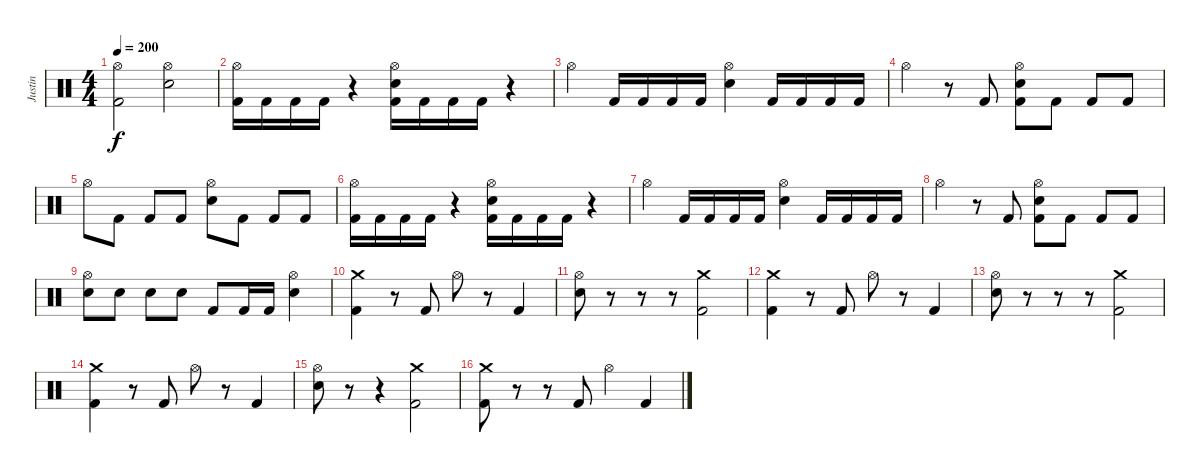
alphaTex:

\track ("Justin" "Justin") {instrument percussion}
\staff {score}
\articulation defaults
\ts (4 4)
\tempo 200
\clef neutral
\ks c
("Hi-Hat (open)" "Kick (hit) 2").2{dy f} ("Hi-Hat (open)" "Electric Snare (hit)").2 |
("Hi-Hat (open)" "Kick (hit) 2").16 "Kick (hit) 2".16 "Kick (hit) 2".16 "Kick (hit) 2".16 r.4 ("Hi-Hat (open)" "Electric Snare (hit)" "Kick (hit) 2").16 "Kick (hit) 2".16 "Kick (hit) 2".16 "Kick (hit) 2".16 r.4 |
"Hi-Hat (open)".4 "Kick (hit) 2".16 "Kick (hit) 2".16 "Kick (hit) 2".16 "Kick (hit) 2".16 ("Hi-Hat (open)" "Electric Snare (hit)").4 "Kick (hit) 2".16 "Kick (hit) 2".16 "Kick (hit) 2".16 "Kick (hit) 2".16 |
"Hi-Hat (open)".4 r.8 "Kick (hit) 2".8 ("Hi-Hat (open)" "Electric Snare (hit)" "Kick (hit) 2").8 "Kick (hit) 2".8 "Kick (hit) 2".8 "Kick (hit) 2".8 |
"Hi-Hat (open)".8 "Kick (hit) 2".8 "Kick (hit) 2".8 "Kick (hit) 2".8 ("Hi-Hat (open)" "Electric Snare (hit)").8 "Kick (hit) 2".8 "Kick (hit) 2".8 "Kick (hit) 2".8 |
("Hi-Hat (open)" "Kick (hit) 2").16 "Kick (hit) 2".16 "Kick (hit) 2".16 "Kick (hit) 2".16 r.4 ("Hi-Hat (open)" "Electric Snare (hit)" "Kick (hit) 2").16 "Kick (hit) 2".16 "Kick (hit) 2".16 "Kick (hit) 2".16 r.4 |
"Hi-Hat (open)".4 "Kick (hit) 2".16 "Kick (hit) 2".16 "Kick (hit) 2".16 "Kick (hit) 2".16 ("Hi-Hat (open)" "Electric Snare (hit)").4 "Kick (hit) 2".16 "Kick (hit) 2".16 "Kick (hit) 2".16 "Kick (hit) 2".16 |
"Hi-Hat (open)".4 r.8 "Kick (hit) 2".8 ("Hi-Hat (open)" "Electric Snare (hit)" "Kick (hit) 2").8 "Kick (hit) 2".8 "Kick (hit) 2".8 "Kick (hit) 2".8 |
("Hi-Hat (open)" "Electric Snare (hit)").8 "Electric Snare (hit)".8 "Electric Snare (hit)".8 "Electric Snare (hit)".8 "Kick (hit) 2".8 "Kick (hit) 2".16 "Kick (hit) 2".16 ("Hi-Hat (open)" "Electric Snare (hit)").4 |
("Crash medium (hit)" "Kick (hit) 2").4 r.8 "Kick (hit) 2".8 "Hi-Hat (open)".8 r.8 "Kick (hit) 2".4 |
("Hi-Hat (open)" "Electric Snare (hit)").8 r.8 r.8 r.8 ("Crash medium (hit)" "Kick (hit) 2").2 |
("Crash medium (hit)" "Kick (hit) 2").4 r.8 "Kick (hit) 2".8 "Hi-Hat (open)".8 r.8 "Kick (hit) 2".4 |
("Hi-Hat (open)" "Electric Snare (hit)").8 r.8 r.8 r.8 ("Crash medium (hit)" "Kick (hit) 2").2 |
("Crash medium (hit)" "Kick (hit) 2").4 r.8 "Kick (hit) 2".8 "Hi-Hat (open)".8 r.8 "Kick (hit) 2".4 |
("Hi-Hat (open)" "Electric Snare (hit)").8 r.8 r.4 ("Crash medium (hit)" "Kick (hit) 2").2 |
("Crash medium (hit)" "Kick (hit) 2").8 r.8 r.8 "Kick (hit) 2".8 "Hi-Hat (open)".4 "Kick (hit) 2".4
